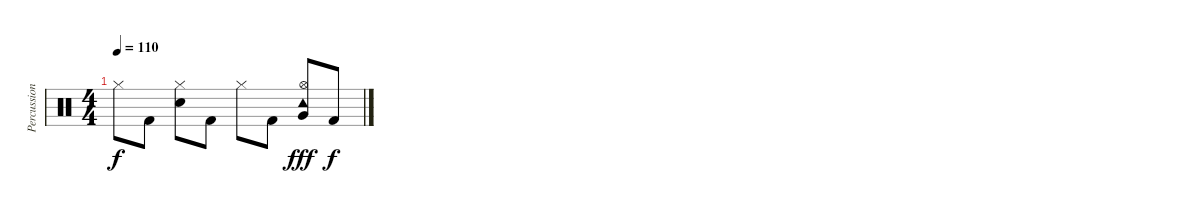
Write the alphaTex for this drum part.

\track ("Percussion" "Percussion") {instrument percussion}
\staff {score}
\articulation defaults
\ts (4 4)
\tempo 110
\clef neutral
\ks aminor "Hi-Hat (closed)".8{dy f} "Kick (hit) 2".8
("Hi-Hat (closed)" "Electric Snare (hit)").8 "Kick (hit) 2".8 "Hi-Hat (closed)".8 "Kick (hit) 2".8 ("Tambourine (hit)" "Hi-Hat (open)" "Very Low Tom (hit)").8{dy fff} "Kick (hit) 2".8{dy f}
